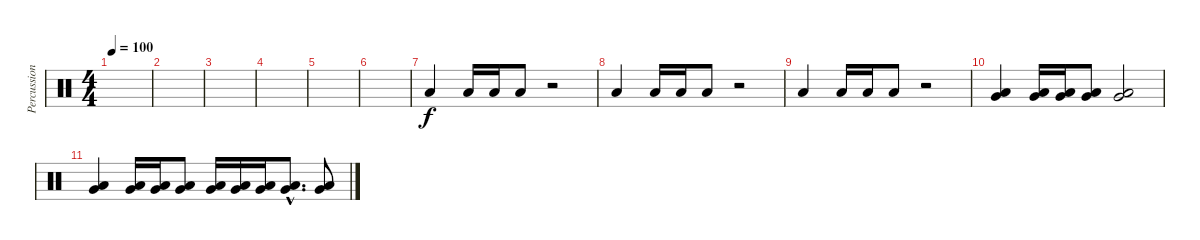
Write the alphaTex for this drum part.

\track ("Percussions" "Percussion") {instrument percussion}
\staff {score}
\articulation defaults
\ts (4 4)
\tempo 100
\clef neutral
\ks c
|
|
|
|
|
|
"Low Floor Tom (hit)".4 "Low Floor Tom (hit)".16 "Low Floor Tom (hit)".16 "Low Floor Tom (hit)".8 r.2 |
"Low Floor Tom (hit)".4 "Low Floor Tom (hit)".16 "Low Floor Tom (hit)".16 "Low Floor Tom (hit)".8 r.2 |
"Low Floor Tom (hit)".4 "Low Floor Tom (hit)".16 "Low Floor Tom (hit)".16 "Low Floor Tom (hit)".8 r.2 |
("Low Floor Tom (hit)" "Very Low Tom (hit)").4 ("Low Floor Tom (hit)" "Very Low Tom (hit)").16 ("Low Floor Tom (hit)" "Very Low Tom (hit)").16 ("Low Floor Tom (hit)" "Very Low Tom (hit)").8 ("Low Floor Tom (hit)" "Very Low Tom (hit)").2 |
("Low Floor Tom (hit)" "Very Low Tom (hit)").4 ("Low Floor Tom (hit)" "Very Low Tom (hit)").16 ("Low Floor Tom (hit)" "Very Low Tom (hit)").16 ("Low Floor Tom (hit)" "Very Low Tom (hit)").8 ("Low Floor Tom (hit)" "Very Low Tom (hit)").16 ("Low Floor Tom (hit)" "Very Low Tom (hit)").16 ("Low Floor Tom (hit)" "Very Low Tom (hit)").16 ("Low Floor Tom (hit)"{hac} "Very Low Tom (hit)"{hac}).8{d} ("Low Floor Tom (hit)" "Very Low Tom (hit)").8
